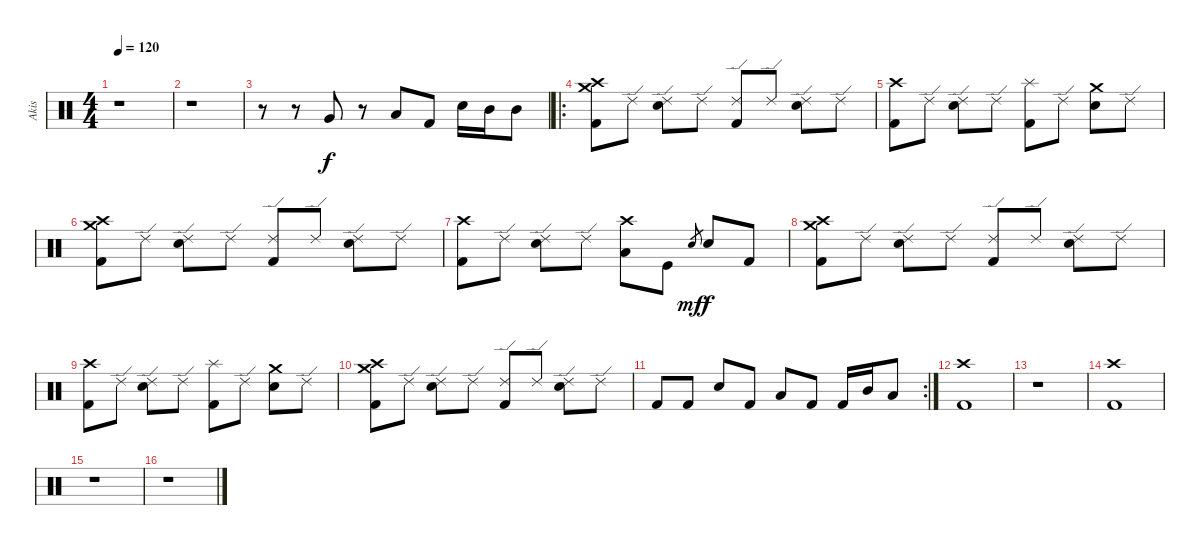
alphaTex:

\track ("Akis" "Akis") {instrument percussion}
\staff {score}
\articulation defaults
\ts (4 4)
\tempo 120
\clef neutral
\ks c
r.1{dy f} |
r.1 |
r.8 r.8 "Very Low Tom (hit)".8 r.8 "Low Tom (hit)".8 "Kick (hit) 2".8 "Electric Snare (hit)".16 "Mid Tom (hit)".16 "Mid Tom (hit)".8 |
\ro
("Crash high (hit)" "Kick (hit) 2" "Crash medium (hit)").8 "Ride (edge) 2".8 ("Ride (edge) 2" "Electric Snare (hit)").8 "Ride (edge) 2".8 ("Ride (edge) 2" "Kick (hit) 2").8 "Ride (edge) 2".8 ("Ride (edge) 2" "Electric Snare (hit)").8 "Ride (edge) 2".8 |
("Crash high (hit)" "Kick (hit) 2").8 "Ride (edge) 2".8 ("Ride (edge) 2" "Electric Snare (hit)").8 "Ride (edge) 2".8 ("Splash (hit)" "Kick (hit) 2").8 "Ride (edge) 2".8 ("Crash medium (hit)" "Electric Snare (hit)").8 "Ride (edge) 2".8 |
("Crash high (hit)" "Kick (hit) 2" "Crash medium (hit)").8 "Ride (edge) 2".8 ("Ride (edge) 2" "Electric Snare (hit)").8 "Ride (edge) 2".8 ("Ride (edge) 2" "Kick (hit) 2").8 "Ride (edge) 2".8 ("Ride (edge) 2" "Electric Snare (hit)").8 "Ride (edge) 2".8 |
("Crash high (hit)" "Kick (hit) 2").8 "Ride (edge) 2".8 ("Ride (edge) 2" "Electric Snare (hit)").8 "Ride (edge) 2".8 ("Crash high (hit)" "Low Tom (hit)").8 "Kick (hit)".8 "Electric Snare (hit)".8{gr dy mf} "Electric Snare (hit)".8{dy f} "Kick (hit) 2".8 |
("Crash high (hit)" "Kick (hit) 2" "Crash medium (hit)").8 "Ride (edge) 2".8 ("Ride (edge) 2" "Electric Snare (hit)").8 "Ride (edge) 2".8 ("Ride (edge) 2" "Kick (hit) 2").8 "Ride (edge) 2".8 ("Ride (edge) 2" "Electric Snare (hit)").8 "Ride (edge) 2".8 |
("Crash high (hit)" "Kick (hit) 2").8 "Ride (edge) 2".8 ("Ride (edge) 2" "Electric Snare (hit)").8 "Ride (edge) 2".8 ("Splash (hit)" "Kick (hit) 2").8 "Ride (edge) 2".8 ("Crash medium (hit)" "Electric Snare (hit)").8 "Ride (edge) 2".8 |
("Crash high (hit)" "Kick (hit) 2" "Crash medium (hit)").8 "Ride (edge) 2".8 ("Ride (edge) 2" "Electric Snare (hit)").8 "Ride (edge) 2".8 ("Ride (edge) 2" "Kick (hit) 2").8 "Ride (edge) 2".8 ("Ride (edge) 2" "Electric Snare (hit)").8 "Ride (edge) 2".8 |
\rc 2 "Kick (hit) 2".8 "Kick (hit) 2".8 "Electric Snare (hit)".8 "Kick (hit) 2".8 "Low Tom (hit)".8 "Kick (hit) 2".8 "Kick (hit) 2".16 "Mid Tom (hit)".16 "Low Tom (hit)".8
|
("Crash high (hit)" "Kick (hit) 2").1 |
r.1 |
("Crash high (hit)" "Kick (hit) 2").1 |
r.1 |
r.1
